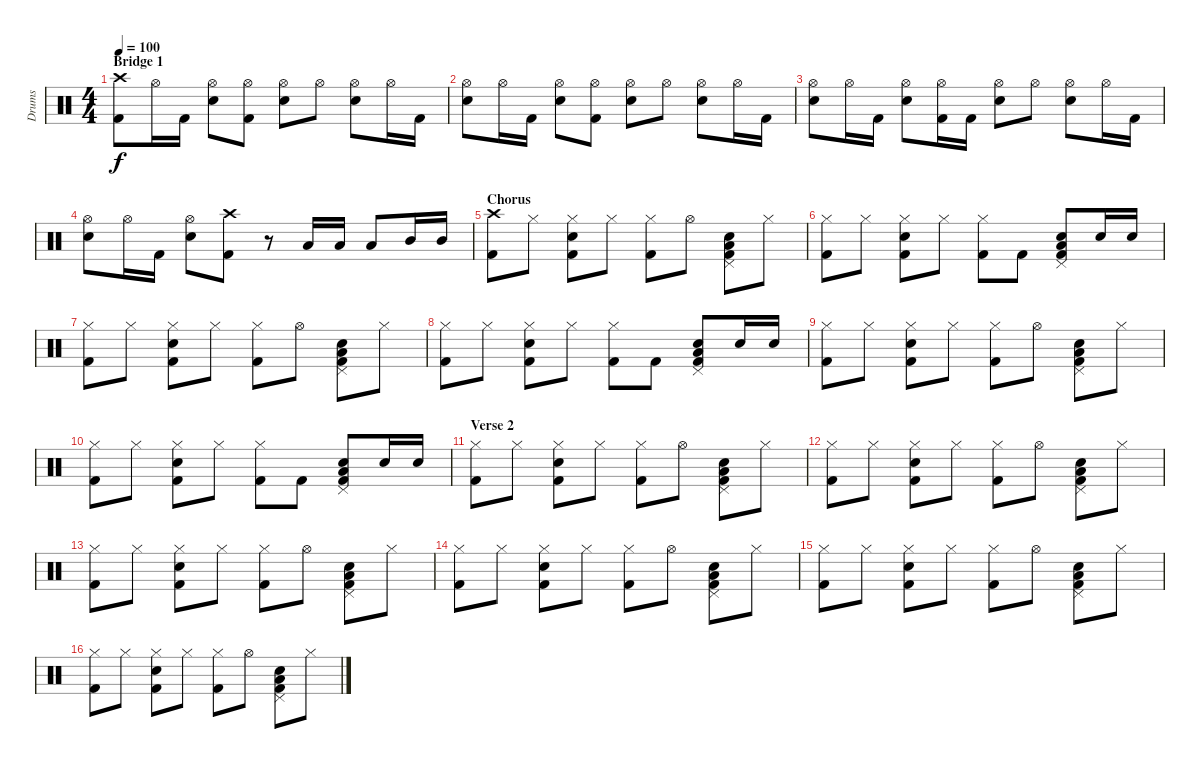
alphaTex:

\track ("Drums" "Drums") {instrument percussion}
\staff {score}
\articulation defaults
\ts (4 4)
\section ("" "Bridge 1")
\tempo 100
\clef neutral
\ks c
("Crash high (hit)" "Kick (hit) 2").8{dy f} "Hi-Hat (open)".16 "Kick (hit) 2".16 ("Hi-Hat (open)" "Snare (hit) 2").8 ("Hi-Hat (open)" "Kick (hit) 2").8 ("Hi-Hat (open)" "Snare (hit) 2").8 "Hi-Hat (open)".8 ("Snare (hit) 2" "Hi-Hat (open)").8 "Hi-Hat (open)".16 "Kick (hit) 2".16 |
("Snare (hit) 2" "Hi-Hat (open)").8 "Hi-Hat (open)".16 "Kick (hit) 2".16 ("Snare (hit) 2" "Hi-Hat (open)").8 ("Hi-Hat (open)" "Kick (hit) 2").8 ("Snare (hit) 2" "Hi-Hat (open)").8 "Hi-Hat (open)".8 ("Hi-Hat (open)" "Snare (hit) 2").8 "Hi-Hat (open)".16 "Kick (hit) 2".16 |
("Hi-Hat (open)" "Snare (hit) 2").8 "Hi-Hat (open)".16 "Kick (hit) 2".16 ("Hi-Hat (open)" "Snare (hit) 2").8 ("Hi-Hat (open)" "Kick (hit) 2").16 "Kick (hit) 2".16 ("Snare (hit) 2" "Hi-Hat (open)").8 "Hi-Hat (open)".8 ("Hi-Hat (open)" "Snare (hit) 2").8 "Hi-Hat (open)".16 "Kick (hit) 2".16 |
("Snare (hit) 2" "Hi-Hat (open)").8 "Hi-Hat (open)".16 "Kick (hit) 2".16 ("Hi-Hat (open)" "Snare (hit) 2").8 ("Crash high (hit)" "Kick (hit) 2").8 r.8 "Low Tom (hit)".16 "Low Tom (hit)".16 "Low Tom (hit)".8 "Mid Tom (hit)".16 "Mid Tom (hit)".16 |
\section ("" "Chorus")
("Crash high (hit)" "Kick (hit) 2").8 "Hi-Hat (closed)".8 ("Kick (hit) 2" "Hi-Hat (closed)" "Snare (hit) 2").8 "Hi-Hat (closed)".8 ("Hi-Hat (closed)" "Kick (hit) 2").8 "Hi-Hat (open)".8 ("Kick (hit) 2" "Snare (hit) 2" "Low Floor Tom (hit)" "Pedal Hi-Hat (hit)").8 "Hi-Hat (closed)".8 |
("Hi-Hat (closed)" "Kick (hit) 2").8 "Hi-Hat (closed)".8 ("Kick (hit) 2" "Snare (hit) 2" "Hi-Hat (closed)").8 "Hi-Hat (closed)".8 ("Hi-Hat (closed)" "Kick (hit) 2").8 "Kick (hit) 2".8 ("Kick (hit) 2" "Pedal Hi-Hat (hit)" "Low Floor Tom (hit)" "Snare (hit) 2").8 "Snare (hit) 2".16 "Snare (hit) 2".16 |
("Kick (hit) 2" "Hi-Hat (closed)").8 "Hi-Hat (closed)".8 ("Kick (hit) 2" "Hi-Hat (closed)" "Snare (hit) 2").8 "Hi-Hat (closed)".8 ("Kick (hit) 2" "Hi-Hat (closed)").8 "Hi-Hat (open)".8 ("Kick (hit) 2" "Pedal Hi-Hat (hit)" "Low Floor Tom (hit)" "Snare (hit) 2").8 "Hi-Hat (closed)".8 |
("Hi-Hat (closed)" "Kick (hit) 2").8 "Hi-Hat (closed)".8 ("Kick (hit) 2" "Snare (hit) 2" "Hi-Hat (closed)").8 "Hi-Hat (closed)".8 ("Hi-Hat (closed)" "Kick (hit) 2").8 "Kick (hit) 2".8 ("Kick (hit) 2" "Pedal Hi-Hat (hit)" "Low Floor Tom (hit)" "Snare (hit) 2").8 "Snare (hit) 2".16 "Snare (hit) 2".16 |
("Kick (hit) 2" "Hi-Hat (closed)").8 "Hi-Hat (closed)".8 ("Kick (hit) 2" "Hi-Hat (closed)" "Snare (hit) 2").8 "Hi-Hat (closed)".8 ("Kick (hit) 2" "Hi-Hat (closed)").8 "Hi-Hat (open)".8 ("Kick (hit) 2" "Pedal Hi-Hat (hit)" "Low Floor Tom (hit)" "Snare (hit) 2").8 "Hi-Hat (closed)".8 |
("Hi-Hat (closed)" "Kick (hit) 2").8 "Hi-Hat (closed)".8 ("Kick (hit) 2" "Snare (hit) 2" "Hi-Hat (closed)").8 "Hi-Hat (closed)".8 ("Hi-Hat (closed)" "Kick (hit) 2").8 "Kick (hit) 2".8 ("Kick (hit) 2" "Pedal Hi-Hat (hit)" "Low Floor Tom (hit)" "Snare (hit) 2").8 "Snare (hit) 2".16 "Snare (hit) 2".16 |
\section ("" "Verse 2")
("Kick (hit) 2" "Hi-Hat (closed)").8 "Hi-Hat (closed)".8 ("Kick (hit) 2" "Hi-Hat (closed)" "Snare (hit) 2").8 "Hi-Hat (closed)".8 ("Kick (hit) 2" "Hi-Hat (closed)").8 "Hi-Hat (open)".8 ("Kick (hit) 2" "Pedal Hi-Hat (hit)" "Low Floor Tom (hit)" "Snare (hit) 2").8 "Hi-Hat (closed)".8 |
("Kick (hit) 2" "Hi-Hat (closed)").8 "Hi-Hat (closed)".8 ("Kick (hit) 2" "Hi-Hat (closed)" "Snare (hit) 2").8 "Hi-Hat (closed)".8 ("Kick (hit) 2" "Hi-Hat (closed)").8 "Hi-Hat (open)".8 ("Kick (hit) 2" "Pedal Hi-Hat (hit)" "Low Floor Tom (hit)" "Snare (hit) 2").8 "Hi-Hat (closed)".8 |
("Kick (hit) 2" "Hi-Hat (closed)").8 "Hi-Hat (closed)".8 ("Kick (hit) 2" "Hi-Hat (closed)" "Snare (hit) 2").8 "Hi-Hat (closed)".8 ("Kick (hit) 2" "Hi-Hat (closed)").8 "Hi-Hat (open)".8 ("Kick (hit) 2" "Pedal Hi-Hat (hit)" "Low Floor Tom (hit)" "Snare (hit) 2").8 "Hi-Hat (closed)".8 |
("Kick (hit) 2" "Hi-Hat (closed)").8 "Hi-Hat (closed)".8 ("Kick (hit) 2" "Hi-Hat (closed)" "Snare (hit) 2").8 "Hi-Hat (closed)".8 ("Kick (hit) 2" "Hi-Hat (closed)").8 "Hi-Hat (open)".8 ("Kick (hit) 2" "Pedal Hi-Hat (hit)" "Low Floor Tom (hit)" "Snare (hit) 2").8 "Hi-Hat (closed)".8 |
("Kick (hit) 2" "Hi-Hat (closed)").8 "Hi-Hat (closed)".8 ("Kick (hit) 2" "Hi-Hat (closed)" "Snare (hit) 2").8 "Hi-Hat (closed)".8 ("Kick (hit) 2" "Hi-Hat (closed)").8 "Hi-Hat (open)".8 ("Kick (hit) 2" "Pedal Hi-Hat (hit)" "Low Floor Tom (hit)" "Snare (hit) 2").8 "Hi-Hat (closed)".8 |
("Kick (hit) 2" "Hi-Hat (closed)").8 "Hi-Hat (closed)".8 ("Kick (hit) 2" "Hi-Hat (closed)" "Snare (hit) 2").8 "Hi-Hat (closed)".8 ("Kick (hit) 2" "Hi-Hat (closed)").8 "Hi-Hat (open)".8 ("Kick (hit) 2" "Pedal Hi-Hat (hit)" "Low Floor Tom (hit)" "Snare (hit) 2").8 "Hi-Hat (closed)".8
